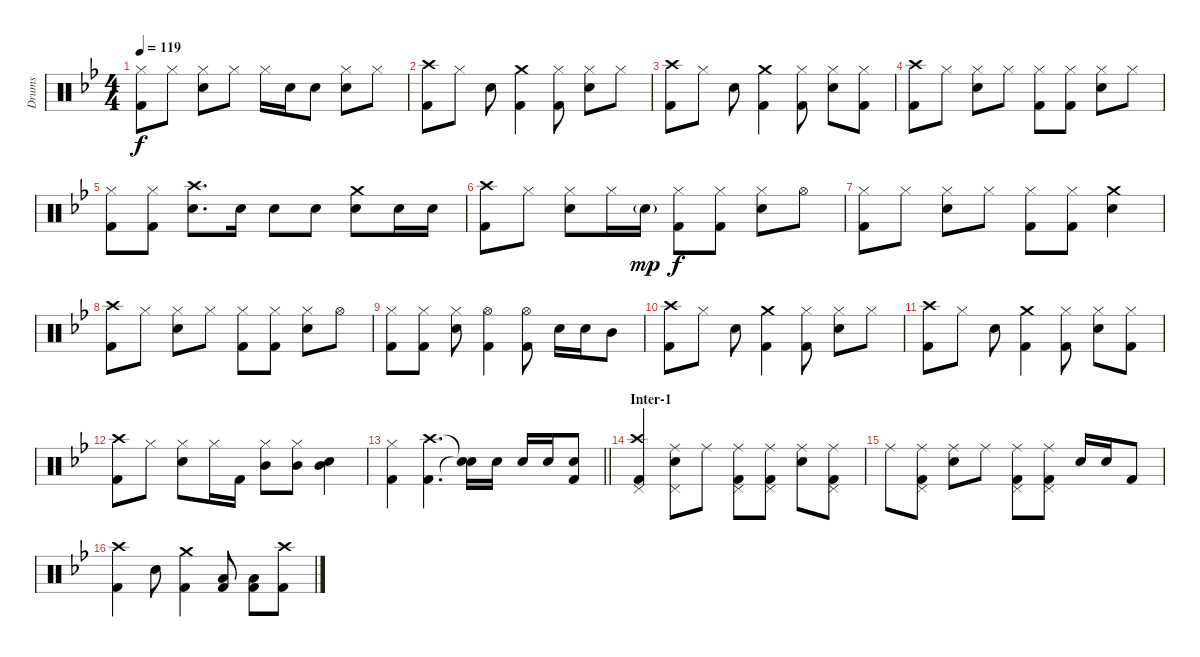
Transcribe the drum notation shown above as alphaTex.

\track ("Drums" "Drums") {instrument percussion}
\staff {score}
\articulation defaults
\ts (4 4)
\tempo 119
\clef neutral
\ks bb
("Hi-Hat (closed)" "Kick (hit) 2").8{dy f} "Hi-Hat (closed)".8 ("Hi-Hat (closed)" "Snare (hit) 2").8 "Hi-Hat (closed)".8 "Hi-Hat (closed)".16 "Snare (hit) 2".16 "Snare (hit) 2".8 ("Hi-Hat (closed)" "Snare (hit) 2").8 "Hi-Hat (closed)".8 |
("Crash high (hit)" "Kick (hit) 2").8 "Hi-Hat (closed)".8 "Snare (hit) 2".8 ("Crash medium (hit)" "Kick (hit) 2").4 ("Hi-Hat (closed)" "Kick (hit) 2").8 ("Hi-Hat (closed)" "Snare (hit) 2").8 "Hi-Hat (closed)".8 |
("Crash high (hit)" "Kick (hit) 2").8 "Hi-Hat (closed)".8 "Snare (hit) 2".8 ("Crash medium (hit)" "Kick (hit) 2").4 ("Hi-Hat (closed)" "Kick (hit) 2").8 ("Hi-Hat (closed)" "Snare (hit) 2").8 ("Hi-Hat (closed)" "Kick (hit) 2").8 |
("Crash high (hit)" "Kick (hit) 2").8 "Hi-Hat (closed)".8 ("Hi-Hat (closed)" "Snare (hit) 2").8 "Hi-Hat (closed)".8 ("Hi-Hat (closed)" "Kick (hit) 2").8 ("Hi-Hat (closed)" "Kick (hit) 2").8 ("Hi-Hat (closed)" "Snare (hit) 2").8 "Hi-Hat (closed)".8 |
("Hi-Hat (closed)" "Kick (hit) 2").8 ("Hi-Hat (closed)" "Kick (hit) 2").8 ("Crash high (hit)" "Snare (hit) 2").8{d} "Snare (hit) 2".16 "Snare (hit) 2".8 "Snare (hit) 2".8 ("Crash medium (hit)" "Snare (hit) 2").8 "Snare (hit) 2".16 "Snare (hit) 2".16 |
("Crash high (hit)" "Kick (hit) 2").8 "Hi-Hat (closed)".8 ("Hi-Hat (closed)" "Snare (hit) 2").8 "Hi-Hat (closed)".16 "Snare (hit) 2"{g}.16{dy mp} ("Hi-Hat (closed)" "Kick (hit) 2").8{dy f} ("Hi-Hat (closed)" "Kick (hit) 2").8 ("Hi-Hat (closed)" "Snare (hit) 2").8 "Hi-Hat (open)".8 |
("Hi-Hat (closed)" "Kick (hit) 2").8 "Hi-Hat (closed)".8 ("Hi-Hat (closed)" "Snare (hit) 2").8 "Hi-Hat (closed)".8 ("Hi-Hat (closed)" "Kick (hit) 2").8 ("Hi-Hat (closed)" "Kick (hit) 2").8 ("Crash medium (hit)" "Snare (hit) 2").4 |
("Crash high (hit)" "Kick (hit) 2").8 "Hi-Hat (closed)".8 ("Hi-Hat (closed)" "Snare (hit) 2").8 "Hi-Hat (closed)".8 ("Hi-Hat (closed)" "Kick (hit) 2").8 ("Hi-Hat (closed)" "Kick (hit) 2").8 ("Hi-Hat (closed)" "Snare (hit) 2").8 "Hi-Hat (open)".8 |
("Hi-Hat (closed)" "Kick (hit) 2").8 ("Hi-Hat (closed)" "Kick (hit) 2").8 ("Hi-Hat (closed)" "Snare (hit) 2").8 ("Hi-Hat (open)" "Kick (hit) 2").4 ("Hi-Hat (open)" "Kick (hit) 2").8 "Snare (hit) 2".16 "Snare (hit) 2".16 "Mid Tom (hit)".8 |
("Crash high (hit)" "Kick (hit) 2").8 "Hi-Hat (closed)".8 "Snare (hit) 2".8 ("Crash medium (hit)" "Kick (hit) 2").4 ("Hi-Hat (closed)" "Kick (hit) 2").8 ("Hi-Hat (closed)" "Snare (hit) 2").8 "Hi-Hat (closed)".8 |
("Crash high (hit)" "Kick (hit) 2").8 "Hi-Hat (closed)".8 "Snare (hit) 2".8 ("Crash medium (hit)" "Kick (hit) 2").4 ("Hi-Hat (closed)" "Kick (hit) 2").8 ("Hi-Hat (closed)" "Snare (hit) 2").8 ("Hi-Hat (closed)" "Kick (hit) 2").8 |
("Crash high (hit)" "Kick (hit) 2").8 "Hi-Hat (closed)".8 ("Hi-Hat (closed)" "Snare (hit) 2").8 "Hi-Hat (closed)".16 "Kick (hit) 2".16 ("Mid Tom (hit)" "Hi-Hat (closed)").8 ("Mid Tom (hit)" "Hi-Hat (closed)").8 ("Mid Tom (hit)" "Snare (hit) 2").4 |
\barLineRight lightlight
("Hi-Hat (closed)" "Kick (hit) 2").4 ("Crash high (hit)" "Kick (hit) 2").4{d} ("Snare (hit)"{t} "Snare (hit)"{t}).16 "Snare (hit) 2".16 "Snare (hit) 2".16 "Snare (hit) 2".16 ("Snare (hit) 2" "Kick (hit) 2").8 |
\section ("" "Inter-1")
("Crash high (hit)" "Pedal Hi-Hat (hit)" "Kick (hit) 2").4 ("Ride (middle)" "Pedal Hi-Hat (hit)" "Snare (hit) 2").8 "Ride (middle)".8 ("Ride (middle)" "Pedal Hi-Hat (hit)" "Kick (hit) 2").8 ("Ride (middle)" "Pedal Hi-Hat (hit)" "Kick (hit) 2").8 ("Ride (middle)" "Snare (hit) 2").8 ("Ride (middle)" "Pedal Hi-Hat (hit)" "Kick (hit) 2").8 |
"Ride (middle)".8 ("Ride (middle)" "Pedal Hi-Hat (hit)" "Kick (hit) 2").8 ("Ride (middle)" "Snare (hit) 2").8 "Ride (middle)".8 ("Ride (middle)" "Pedal Hi-Hat (hit)" "Kick (hit) 2").8 ("Ride (middle)" "Pedal Hi-Hat (hit)" "Kick (hit) 2").8 "Snare (hit) 2".16 "Snare (hit) 2".16 "Kick (hit) 2".8 |
("Crash high (hit)" "Kick (hit) 2").4 "Snare (hit) 2".8 ("Crash medium (hit)" "Kick (hit) 2").4 ("Low Tom (hit)" "Kick (hit) 2").8 ("Low Tom (hit)" "Kick (hit) 2").8 ("Crash high (hit)" "Kick (hit) 2").8
